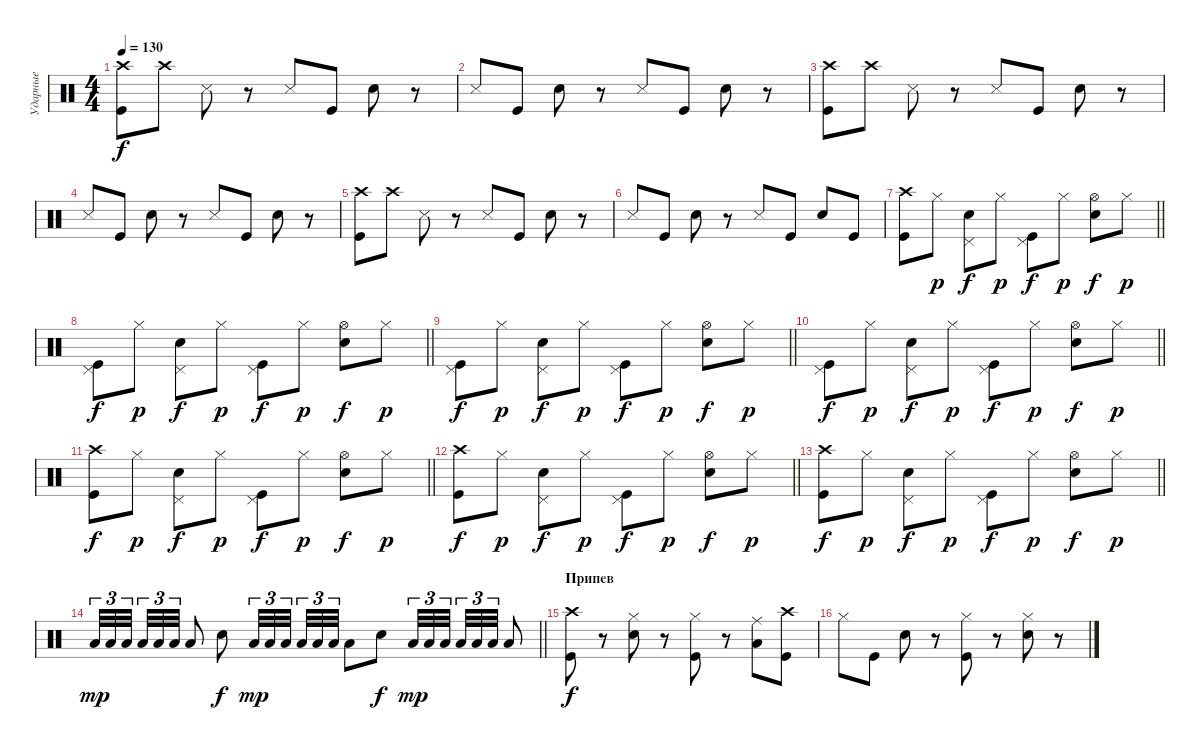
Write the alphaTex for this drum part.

\track ("Ударные" "Ударные") {instrument percussion}
\staff {score}
\articulation defaults
\ts (4 4)
\tempo 130
\clef neutral
\ks c
("Crash high (hit)" "Kick (hit)").8{dy f} "Crash high (hit)".8 "Snare (side stick) 3".8 r.8 "Snare (side stick) 3".8 "Kick (hit)".8 "Snare (hit) 2".8 r.8 |
"Snare (side stick) 3".8 "Kick (hit)".8 "Snare (hit) 2".8 r.8 "Snare (side stick) 3".8 "Kick (hit)".8 "Snare (hit) 2".8 r.8 |
("Crash high (hit)" "Kick (hit)").8 "Crash high (hit)".8 "Snare (side stick) 3".8 r.8 "Snare (side stick) 3".8 "Kick (hit)".8 "Snare (hit) 2".8 r.8 |
"Snare (side stick) 3".8 "Kick (hit)".8 "Snare (hit) 2".8 r.8 "Snare (side stick) 3".8 "Kick (hit)".8 "Snare (hit) 2".8 r.8 |
("Crash high (hit)" "Kick (hit)").8 "Crash high (hit)".8 "Snare (side stick) 3".8 r.8 "Snare (side stick) 3".8 "Kick (hit)".8 "Snare (hit) 2".8 r.8 |
"Snare (side stick) 3".8 "Kick (hit)".8 "Snare (hit) 2".8 r.8 "Snare (side stick) 3".8 "Kick (hit)".8 "Snare (hit) 2".8 "Kick (hit)".8 |
\barLineRight lightlight
("Crash high (hit)" "Kick (hit)").8 "Hi-Hat (closed)".8{dy p} ("Pedal Hi-Hat (hit)" "Snare (hit) 2").8{dy f} "Hi-Hat (closed)".8{dy p} ("Pedal Hi-Hat (hit)" "Kick (hit)").8{dy f} "Hi-Hat (closed)".8{dy p} ("Hi-Hat (open)" "Snare (hit) 2").8{dy f} "Hi-Hat (closed)".8{dy p} |
\barLineRight lightlight
("Pedal Hi-Hat (hit)" "Kick (hit)").8{dy f} "Hi-Hat (closed)".8{dy p} ("Pedal Hi-Hat (hit)" "Snare (hit) 2").8{dy f} "Hi-Hat (closed)".8{dy p} ("Pedal Hi-Hat (hit)" "Kick (hit)").8{dy f} "Hi-Hat (closed)".8{dy p} ("Hi-Hat (open)" "Snare (hit) 2").8{dy f} "Hi-Hat (closed)".8{dy p} |
\barLineRight lightlight
("Pedal Hi-Hat (hit)" "Kick (hit)").8{dy f} "Hi-Hat (closed)".8{dy p} ("Pedal Hi-Hat (hit)" "Snare (hit) 2").8{dy f} "Hi-Hat (closed)".8{dy p} ("Pedal Hi-Hat (hit)" "Kick (hit)").8{dy f} "Hi-Hat (closed)".8{dy p} ("Hi-Hat (open)" "Snare (hit) 2").8{dy f} "Hi-Hat (closed)".8{dy p} |
\barLineRight lightlight
("Pedal Hi-Hat (hit)" "Kick (hit)").8{dy f} "Hi-Hat (closed)".8{dy p} ("Pedal Hi-Hat (hit)" "Snare (hit) 2").8{dy f} "Hi-Hat (closed)".8{dy p} ("Pedal Hi-Hat (hit)" "Kick (hit)").8{dy f} "Hi-Hat (closed)".8{dy p} ("Hi-Hat (open)" "Snare (hit) 2").8{dy f} "Hi-Hat (closed)".8{dy p} |
\barLineRight lightlight
("Crash high (hit)" "Kick (hit)").8{dy f} "Hi-Hat (closed)".8{dy p} ("Pedal Hi-Hat (hit)" "Snare (hit) 2").8{dy f} "Hi-Hat (closed)".8{dy p} ("Pedal Hi-Hat (hit)" "Kick (hit)").8{dy f} "Hi-Hat (closed)".8{dy p} ("Hi-Hat (open)" "Snare (hit) 2").8{dy f} "Hi-Hat (closed)".8{dy p} |
\barLineRight lightlight
("Crash high (hit)" "Kick (hit)").8{dy f} "Hi-Hat (closed)".8{dy p} ("Pedal Hi-Hat (hit)" "Snare (hit) 2").8{dy f} "Hi-Hat (closed)".8{dy p} ("Pedal Hi-Hat (hit)" "Kick (hit)").8{dy f} "Hi-Hat (closed)".8{dy p} ("Hi-Hat (open)" "Snare (hit) 2").8{dy f} "Hi-Hat (closed)".8{dy p} |
\barLineRight lightlight
("Crash high (hit)" "Kick (hit)").8{dy f} "Hi-Hat (closed)".8{dy p} ("Pedal Hi-Hat (hit)" "Snare (hit) 2").8{dy f} "Hi-Hat (closed)".8{dy p} ("Pedal Hi-Hat (hit)" "Kick (hit)").8{dy f} "Hi-Hat (closed)".8{dy p} ("Hi-Hat (open)" "Snare (hit) 2").8{dy f} "Hi-Hat (closed)".8{dy p} |
\barLineRight lightlight "Low Tom (hit)".32{tu (3 2) dy mp} "Low Tom (hit)".32{tu (3 2)} "Low Tom (hit)".32{tu (3 2) beam splitsecondary} "Low Tom (hit)".32{tu (3 2)} "Low Tom (hit)".32{tu (3 2)} "Low Tom (hit)".32{tu (3 2)} "Low Tom (hit)".8 "Snare (hit) 2".8{dy f} "Low Tom (hit)".32{tu (3 2) dy mp} "Low Tom (hit)".32{tu (3 2)} "Low Tom (hit)".32{tu (3 2) beam splitsecondary} "Low Tom (hit)".32{tu (3 2)} "Low Tom (hit)".32{tu (3 2)} "Low Tom (hit)".32{tu (3 2)} "Low Tom (hit)".8 "Snare (hit) 2".8{dy f} "Low Tom (hit)".32{tu (3 2) dy mp} "Low Tom (hit)".32{tu (3 2)} "Low Tom (hit)".32{tu (3 2) beam splitsecondary} "Low Tom (hit)".32{tu (3 2)} "Low Tom (hit)".32{tu (3 2)} "Low Tom (hit)".32{tu (3 2)} "Low Tom (hit)".8
|
\section ("" "Припев")
("Crash high (hit)" "Kick (hit)").8{dy f} r.8 ("Hi-Hat (closed)" "Snare (hit) 2").8 r.8 ("Hi-Hat (closed)" "Kick (hit)").8 r.8 ("Ride (middle)" "Low Tom (hit)").8 ("Crash high (hit)" "Kick (hit)").8 |
"Hi-Hat (closed)".8 "Kick (hit)".8 "Snare (hit) 2".8 r.8 ("Hi-Hat (closed)" "Kick (hit)").8 r.8 ("Hi-Hat (closed)" "Snare (hit) 2").8 r.8
